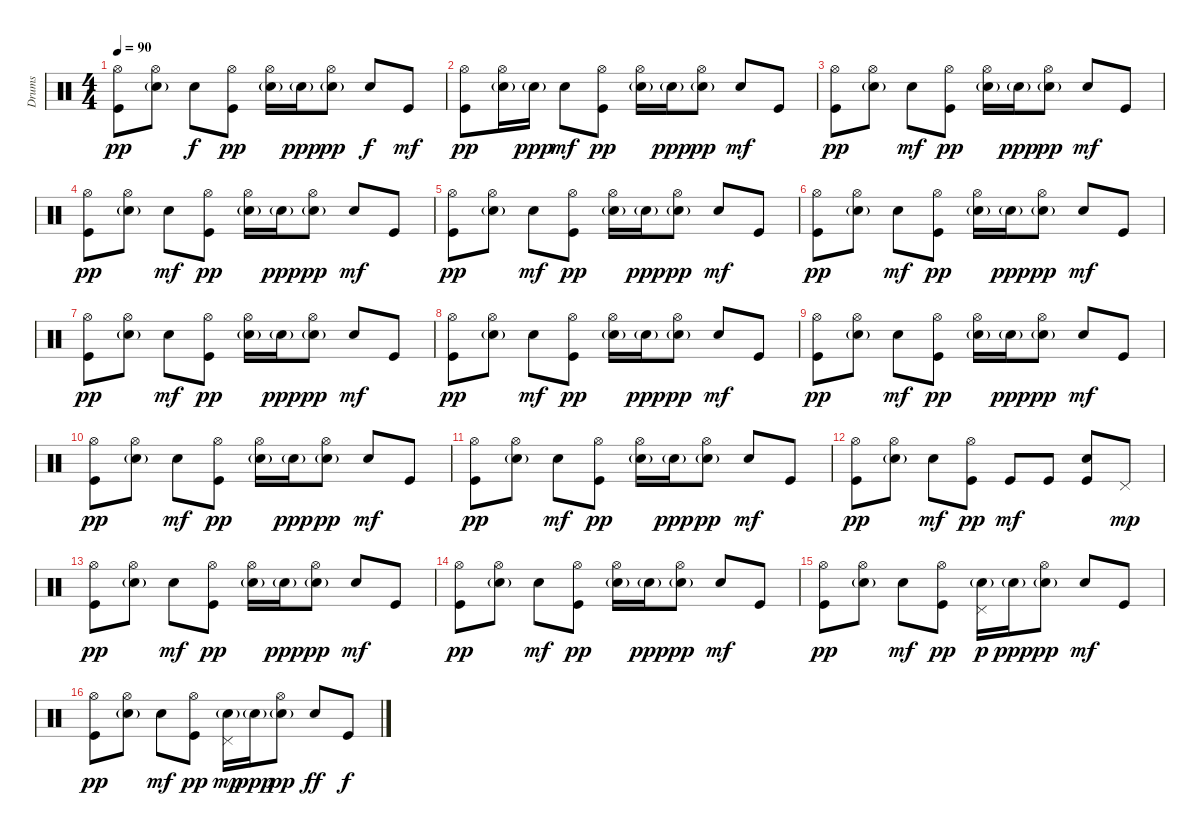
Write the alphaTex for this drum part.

\track ("Drums" "Drums") {instrument percussion}
\staff {score}
\articulation defaults
\ts (4 4)
\tempo 90
\clef neutral
\ks c
("Kick (hit)" "Hi-Hat (open)").8{dy pp} ("Snare (hit) 2"{g} "Hi-Hat (open)").8 "Snare (hit) 2".8{dy f} ("Kick (hit)" "Hi-Hat (open)").8{dy pp} ("Snare (hit) 2"{g} "Hi-Hat (open)").16 "Snare (hit) 2"{g}.16{dy ppp} ("Snare (hit) 2"{g} "Hi-Hat (open)").8{dy pp} "Snare (hit) 2".8{dy f} "Kick (hit)".8{dy mf} |
("Kick (hit)" "Hi-Hat (open)").8{dy pp} ("Snare (hit) 2"{g} "Hi-Hat (open)").16 "Snare (hit) 2"{g}.16{dy ppp} "Snare (hit) 2".8{dy mf} ("Kick (hit)" "Hi-Hat (open)").8{dy pp} ("Snare (hit) 2"{g} "Hi-Hat (open)").16 "Snare (hit) 2"{g}.16{dy ppp} ("Snare (hit) 2"{g} "Hi-Hat (open)").8{dy pp} "Snare (hit) 2".8{dy mf} "Kick (hit)".8 |
("Kick (hit)" "Hi-Hat (open)").8{dy pp} ("Snare (hit) 2"{g} "Hi-Hat (open)").8 "Snare (hit) 2".8{dy mf} ("Kick (hit)" "Hi-Hat (open)").8{dy pp} ("Snare (hit) 2"{g} "Hi-Hat (open)").16 "Snare (hit) 2"{g}.16{dy ppp} ("Snare (hit) 2"{g} "Hi-Hat (open)").8{dy pp} "Snare (hit) 2".8{dy mf} "Kick (hit)".8 |
("Kick (hit)" "Hi-Hat (open)").8{dy pp} ("Snare (hit) 2"{g} "Hi-Hat (open)").8 "Snare (hit) 2".8{dy mf} ("Kick (hit)" "Hi-Hat (open)").8{dy pp} ("Snare (hit) 2"{g} "Hi-Hat (open)").16 "Snare (hit) 2"{g}.16{dy ppp} ("Snare (hit) 2"{g} "Hi-Hat (open)").8{dy pp} "Snare (hit) 2".8{dy mf} "Kick (hit)".8 |
("Kick (hit)" "Hi-Hat (open)").8{dy pp} ("Snare (hit) 2"{g} "Hi-Hat (open)").8 "Snare (hit) 2".8{dy mf} ("Kick (hit)" "Hi-Hat (open)").8{dy pp} ("Snare (hit) 2"{g} "Hi-Hat (open)").16 "Snare (hit) 2"{g}.16{dy ppp} ("Snare (hit) 2"{g} "Hi-Hat (open)").8{dy pp} "Snare (hit) 2".8{dy mf} "Kick (hit)".8 |
("Kick (hit)" "Hi-Hat (open)").8{dy pp} ("Snare (hit) 2"{g} "Hi-Hat (open)").8 "Snare (hit) 2".8{dy mf} ("Kick (hit)" "Hi-Hat (open)").8{dy pp} ("Snare (hit) 2"{g} "Hi-Hat (open)").16 "Snare (hit) 2"{g}.16{dy ppp} ("Snare (hit) 2"{g} "Hi-Hat (open)").8{dy pp} "Snare (hit) 2".8{dy mf} "Kick (hit)".8 |
("Kick (hit)" "Hi-Hat (open)").8{dy pp} ("Snare (hit) 2"{g} "Hi-Hat (open)").8 "Snare (hit) 2".8{dy mf} ("Kick (hit)" "Hi-Hat (open)").8{dy pp} ("Snare (hit) 2"{g} "Hi-Hat (open)").16 "Snare (hit) 2"{g}.16{dy ppp} ("Snare (hit) 2"{g} "Hi-Hat (open)").8{dy pp} "Snare (hit) 2".8{dy mf} "Kick (hit)".8 |
("Kick (hit)" "Hi-Hat (open)").8{dy pp} ("Snare (hit) 2"{g} "Hi-Hat (open)").8 "Snare (hit) 2".8{dy mf} ("Kick (hit)" "Hi-Hat (open)").8{dy pp} ("Snare (hit) 2"{g} "Hi-Hat (open)").16 "Snare (hit) 2"{g}.16{dy ppp} ("Snare (hit) 2"{g} "Hi-Hat (open)").8{dy pp} "Snare (hit) 2".8{dy mf} "Kick (hit)".8 |
("Kick (hit)" "Hi-Hat (open)").8{dy pp} ("Snare (hit) 2"{g} "Hi-Hat (open)").8 "Snare (hit) 2".8{dy mf} ("Kick (hit)" "Hi-Hat (open)").8{dy pp} ("Snare (hit) 2"{g} "Hi-Hat (open)").16 "Snare (hit) 2"{g}.16{dy ppp} ("Snare (hit) 2"{g} "Hi-Hat (open)").8{dy pp} "Snare (hit) 2".8{dy mf} "Kick (hit)".8 |
("Kick (hit)" "Hi-Hat (open)").8{dy pp} ("Snare (hit) 2"{g} "Hi-Hat (open)").8 "Snare (hit) 2".8{dy mf} ("Kick (hit)" "Hi-Hat (open)").8{dy pp} ("Snare (hit) 2"{g} "Hi-Hat (open)").16 "Snare (hit) 2"{g}.16{dy ppp} ("Snare (hit) 2"{g} "Hi-Hat (open)").8{dy pp} "Snare (hit) 2".8{dy mf} "Kick (hit)".8 |
("Kick (hit)" "Hi-Hat (open)").8{dy pp} ("Snare (hit) 2"{g} "Hi-Hat (open)").8 "Snare (hit) 2".8{dy mf} ("Kick (hit)" "Hi-Hat (open)").8{dy pp} ("Snare (hit) 2"{g} "Hi-Hat (open)").16 "Snare (hit) 2"{g}.16{dy ppp} ("Snare (hit) 2"{g} "Hi-Hat (open)").8{dy pp} "Snare (hit) 2".8{dy mf} "Kick (hit)".8 |
("Kick (hit)" "Hi-Hat (open)").8{dy pp} ("Snare (hit) 2"{g} "Hi-Hat (open)").8 "Snare (hit) 2".8{dy mf} ("Kick (hit)" "Hi-Hat (open)").8{dy pp} "Kick (hit)".8{dy mf} "Kick (hit)".8 ("Kick (hit)" "Snare (hit) 2").8 "Pedal Hi-Hat (hit)".8{dy mp} |
("Kick (hit)" "Hi-Hat (open)").8{dy pp} ("Snare (hit) 2"{g} "Hi-Hat (open)").8 "Snare (hit) 2".8{dy mf} ("Kick (hit)" "Hi-Hat (open)").8{dy pp} ("Snare (hit) 2"{g} "Hi-Hat (open)").16 "Snare (hit) 2"{g}.16{dy ppp} ("Snare (hit) 2"{g} "Hi-Hat (open)").8{dy pp} "Snare (hit) 2".8{dy mf} "Kick (hit)".8 |
("Kick (hit)" "Hi-Hat (open)").8{dy pp} ("Snare (hit) 2"{g} "Hi-Hat (open)").8 "Snare (hit) 2".8{dy mf} ("Kick (hit)" "Hi-Hat (open)").8{dy pp} ("Snare (hit) 2"{g} "Hi-Hat (open)").16 "Snare (hit) 2"{g}.16{dy ppp} ("Snare (hit) 2"{g} "Hi-Hat (open)").8{dy pp} "Snare (hit) 2".8{dy mf} "Kick (hit)".8 |
("Kick (hit)" "Hi-Hat (open)").8{dy pp} ("Snare (hit) 2"{g} "Hi-Hat (open)").8 "Snare (hit) 2".8{dy mf} ("Kick (hit)" "Hi-Hat (open)").8{dy pp} ("Snare (hit) 2"{g} "Pedal Hi-Hat (hit)").16{dy p} "Snare (hit) 2"{g}.16{dy ppp} ("Snare (hit) 2"{g} "Hi-Hat (open)").8{dy pp} "Snare (hit) 2".8{dy mf} "Kick (hit)".8 |
("Kick (hit)" "Hi-Hat (open)").8{dy pp} ("Snare (hit) 2"{g} "Hi-Hat (open)").8 "Snare (hit) 2".8{dy mf} ("Kick (hit)" "Hi-Hat (open)").8{dy pp} ("Snare (hit) 2"{g} "Pedal Hi-Hat (hit)").16{dy mp} "Snare (hit) 2"{g}.16{dy ppp} ("Snare (hit) 2"{g} "Hi-Hat (open)").8{dy pp} "Snare (hit) 2".8{dy ff} "Kick (hit)".8{dy f}
